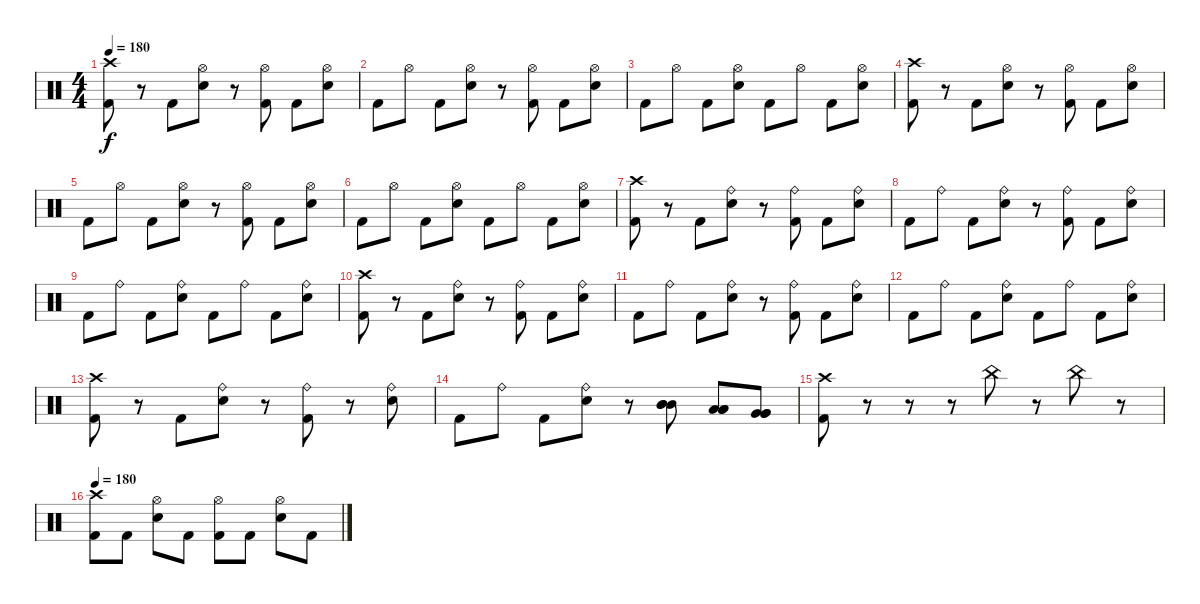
\track "" {instrument percussion}
\staff {score}
\articulation defaults
\ts (4 4)
\tempo 180
\clef neutral
\ks c
("Crash high (hit)" "Kick (hit) 2").8{dy f} r.8 "Kick (hit) 2".8 ("Hi-Hat (open)" "Electric Snare (hit)").8 r.8 ("Hi-Hat (open)" "Kick (hit) 2").8 "Kick (hit) 2".8 ("Hi-Hat (open)" "Electric Snare (hit)").8 |
"Kick (hit) 2".8 "Hi-Hat (open)".8 "Kick (hit) 2".8 ("Hi-Hat (open)" "Electric Snare (hit)").8 r.8 ("Hi-Hat (open)" "Kick (hit) 2").8 "Kick (hit) 2".8 ("Hi-Hat (open)" "Electric Snare (hit)").8 |
"Kick (hit) 2".8 "Hi-Hat (open)".8 "Kick (hit) 2".8 ("Hi-Hat (open)" "Electric Snare (hit)").8 "Kick (hit) 2".8 "Hi-Hat (open)".8 "Kick (hit) 2".8 ("Hi-Hat (open)" "Electric Snare (hit)").8 |
("Crash high (hit)" "Kick (hit) 2").8 r.8 "Kick (hit) 2".8 ("Hi-Hat (open)" "Electric Snare (hit)").8 r.8 ("Hi-Hat (open)" "Kick (hit) 2").8 "Kick (hit) 2".8 ("Hi-Hat (open)" "Electric Snare (hit)").8 |
"Kick (hit) 2".8 "Hi-Hat (open)".8 "Kick (hit) 2".8 ("Hi-Hat (open)" "Electric Snare (hit)").8 r.8 ("Hi-Hat (open)" "Kick (hit) 2").8 "Kick (hit) 2".8 ("Hi-Hat (open)" "Electric Snare (hit)").8 |
"Kick (hit) 2".8 "Hi-Hat (open)".8 "Kick (hit) 2".8 ("Hi-Hat (open)" "Electric Snare (hit)").8 "Kick (hit) 2".8 "Hi-Hat (open)".8 "Kick (hit) 2".8 ("Hi-Hat (open)" "Electric Snare (hit)").8 |
("Crash high (hit)" "Kick (hit) 2").8 r.8 "Kick (hit) 2".8 ("Ride (bell)" "Electric Snare (hit)").8 r.8 ("Ride (bell)" "Kick (hit) 2").8 "Kick (hit) 2".8 ("Ride (bell)" "Electric Snare (hit)").8 |
"Kick (hit) 2".8 "Ride (bell)".8 "Kick (hit) 2".8 ("Ride (bell)" "Electric Snare (hit)").8 r.8 ("Ride (bell)" "Kick (hit) 2").8 "Kick (hit) 2".8 ("Ride (bell)" "Electric Snare (hit)").8 |
"Kick (hit) 2".8 "Ride (bell)".8 "Kick (hit) 2".8 ("Ride (bell)" "Electric Snare (hit)").8 "Kick (hit) 2".8 "Ride (bell)".8 "Kick (hit) 2".8 ("Ride (bell)" "Electric Snare (hit)").8 |
("Crash high (hit)" "Kick (hit) 2").8 r.8 "Kick (hit) 2".8 ("Ride (bell)" "Electric Snare (hit)").8 r.8 ("Ride (bell)" "Kick (hit) 2").8 "Kick (hit) 2".8 ("Ride (bell)" "Electric Snare (hit)").8 |
"Kick (hit) 2".8 "Ride (bell)".8 "Kick (hit) 2".8 ("Ride (bell)" "Electric Snare (hit)").8 r.8 ("Ride (bell)" "Kick (hit) 2").8 "Kick (hit) 2".8 ("Ride (bell)" "Electric Snare (hit)").8 |
"Kick (hit) 2".8 "Ride (bell)".8 "Kick (hit) 2".8 ("Ride (bell)" "Electric Snare (hit)").8 "Kick (hit) 2".8 "Ride (bell)".8 "Kick (hit) 2".8 ("Ride (bell)" "Electric Snare (hit)").8 |
("Crash high (hit)" "Kick (hit) 2").8 r.8 "Kick (hit) 2".8 ("Ride (bell)" "Electric Snare (hit)").8 r.8 ("Ride (bell)" "Kick (hit) 2").8 r.8 ("Ride (bell)" "Electric Snare (hit)").8 |
"Kick (hit) 2".8 "Ride (bell)".8 "Kick (hit) 2".8 ("Ride (bell)" "Electric Snare (hit)").8 r.8 ("Mid Tom (hit)" "Mid Tom (hit)" "Mid Tom (hit)").8 ("Low Tom (hit)" "Low Tom (hit)" "Low Tom (hit)").8 ("Very Low Tom (hit)" "Very Low Tom (hit)" "Very Low Tom (hit)").8 |
("Crash high (hit)" "Kick (hit) 2").8 r.8 r.8 r.8 "China (hit)".8 r.8 "China (hit)".8 r.8 |
\tempo 180
("Crash high (hit)" "Kick (hit) 2").8 "Kick (hit) 2".8 ("Hi-Hat (open)" "Electric Snare (hit)").8 "Kick (hit) 2".8 ("Hi-Hat (open)" "Kick (hit) 2").8 "Kick (hit) 2".8 ("Hi-Hat (open)" "Electric Snare (hit)").8 "Kick (hit) 2".8
